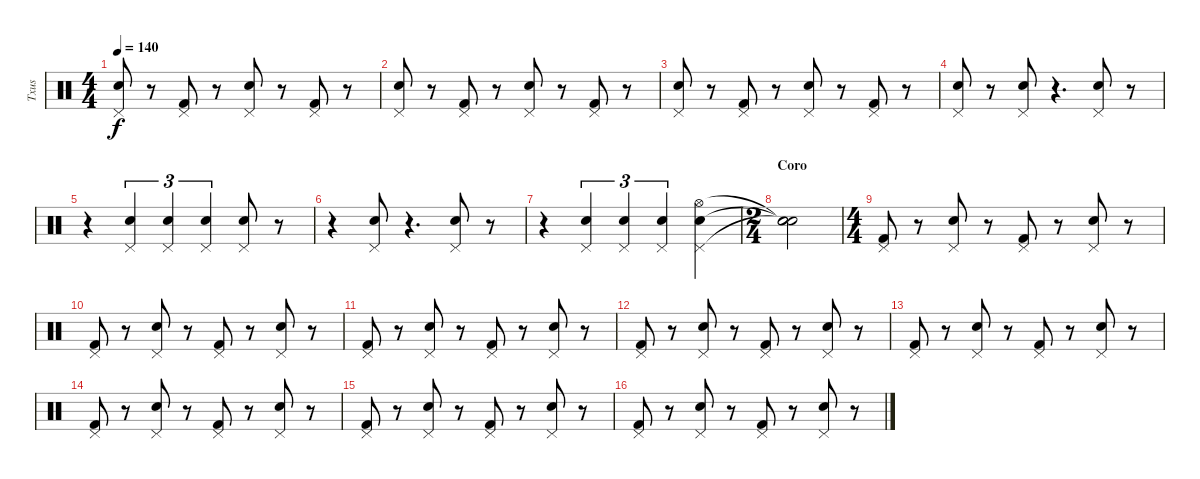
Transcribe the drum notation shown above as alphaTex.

\track ("Txus" "Txus") {instrument percussion}
\staff {score}
\articulation defaults
\ts (4 4)
\tempo 140
\clef neutral
\ks c
("Pedal Hi-Hat (hit)" "Snare (hit) 2").8{dy f} r.8 ("Pedal Hi-Hat (hit)" "Kick (hit) 2").8 r.8 ("Pedal Hi-Hat (hit)" "Snare (hit) 2").8 r.8 ("Pedal Hi-Hat (hit)" "Kick (hit) 2").8 r.8 |
("Pedal Hi-Hat (hit)" "Snare (hit) 2").8 r.8 ("Pedal Hi-Hat (hit)" "Kick (hit) 2").8 r.8 ("Pedal Hi-Hat (hit)" "Snare (hit) 2").8 r.8 ("Pedal Hi-Hat (hit)" "Kick (hit) 2").8 r.8 |
("Pedal Hi-Hat (hit)" "Snare (hit) 2").8 r.8 ("Pedal Hi-Hat (hit)" "Kick (hit) 2").8 r.8 ("Pedal Hi-Hat (hit)" "Snare (hit) 2").8 r.8 ("Pedal Hi-Hat (hit)" "Kick (hit) 2").8 r.8 |
("Pedal Hi-Hat (hit)" "Snare (hit) 2").8 r.8 ("Pedal Hi-Hat (hit)" "Snare (hit) 2").8 r.4{d} ("Pedal Hi-Hat (hit)" "Snare (hit) 2").8 r.8 |
r.4 ("Pedal Hi-Hat (hit)" "Snare (hit) 2").4{tu (3 2)} ("Pedal Hi-Hat (hit)" "Snare (hit) 2").4{tu (3 2)} ("Pedal Hi-Hat (hit)" "Snare (hit) 2").4{tu (3 2)} ("Pedal Hi-Hat (hit)" "Snare (hit) 2").8 r.8 |
r.4 ("Pedal Hi-Hat (hit)" "Snare (hit) 2").8 r.4{d} ("Pedal Hi-Hat (hit)" "Snare (hit) 2").8 r.8 |
r.4 ("Pedal Hi-Hat (hit)" "Snare (hit) 2").4{tu (3 2)} ("Pedal Hi-Hat (hit)" "Snare (hit) 2").4{tu (3 2)} ("Pedal Hi-Hat (hit)" "Snare (hit) 2").4{tu (3 2)} ("Pedal Hi-Hat (hit)" "Snare (hit) 2" "Hi-Hat (open)").4 |
\ts (2 4)
\section ("" "Coro")
("Snare (hit)"{t} "Snare (hit)"{t} "Snare (hit)"{t}).2 |
\ts (4 4)
("Pedal Hi-Hat (hit)" "Kick (hit) 2").8 r.8 ("Pedal Hi-Hat (hit)" "Snare (hit) 2").8 r.8 ("Pedal Hi-Hat (hit)" "Kick (hit) 2").8 r.8 ("Pedal Hi-Hat (hit)" "Snare (hit) 2").8 r.8 |
("Pedal Hi-Hat (hit)" "Kick (hit) 2").8 r.8 ("Pedal Hi-Hat (hit)" "Snare (hit) 2").8 r.8 ("Pedal Hi-Hat (hit)" "Kick (hit) 2").8 r.8 ("Pedal Hi-Hat (hit)" "Snare (hit) 2").8 r.8 |
("Pedal Hi-Hat (hit)" "Kick (hit) 2").8 r.8 ("Pedal Hi-Hat (hit)" "Snare (hit) 2").8 r.8 ("Pedal Hi-Hat (hit)" "Kick (hit) 2").8 r.8 ("Pedal Hi-Hat (hit)" "Snare (hit) 2").8 r.8 |
("Pedal Hi-Hat (hit)" "Kick (hit) 2").8 r.8 ("Pedal Hi-Hat (hit)" "Snare (hit) 2").8 r.8 ("Pedal Hi-Hat (hit)" "Kick (hit) 2").8 r.8 ("Pedal Hi-Hat (hit)" "Snare (hit) 2").8 r.8 |
("Pedal Hi-Hat (hit)" "Kick (hit) 2").8 r.8 ("Pedal Hi-Hat (hit)" "Snare (hit) 2").8 r.8 ("Pedal Hi-Hat (hit)" "Kick (hit) 2").8 r.8 ("Pedal Hi-Hat (hit)" "Snare (hit) 2").8 r.8 |
("Pedal Hi-Hat (hit)" "Kick (hit) 2").8 r.8 ("Pedal Hi-Hat (hit)" "Snare (hit) 2").8 r.8 ("Pedal Hi-Hat (hit)" "Kick (hit) 2").8 r.8 ("Pedal Hi-Hat (hit)" "Snare (hit) 2").8 r.8 |
("Pedal Hi-Hat (hit)" "Kick (hit) 2").8 r.8 ("Pedal Hi-Hat (hit)" "Snare (hit) 2").8 r.8 ("Pedal Hi-Hat (hit)" "Kick (hit) 2").8 r.8 ("Pedal Hi-Hat (hit)" "Snare (hit) 2").8 r.8 |
("Pedal Hi-Hat (hit)" "Kick (hit) 2").8 r.8 ("Pedal Hi-Hat (hit)" "Snare (hit) 2").8 r.8 ("Pedal Hi-Hat (hit)" "Kick (hit) 2").8 r.8 ("Pedal Hi-Hat (hit)" "Snare (hit) 2").8 r.8
